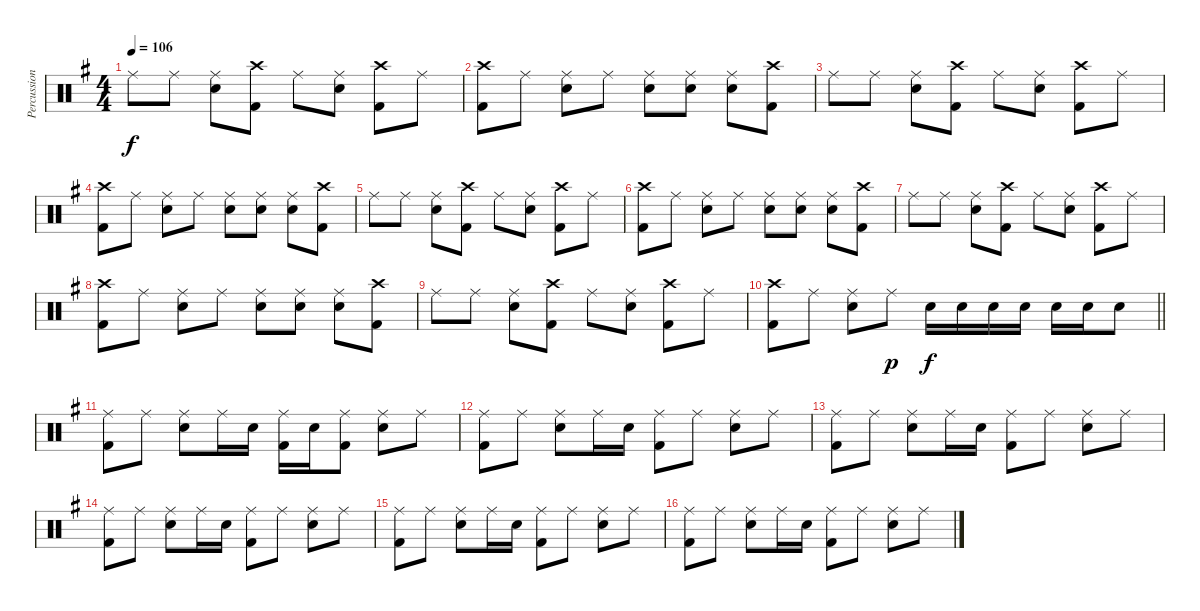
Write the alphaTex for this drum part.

\track ("Percussion" "Percussion") {instrument percussion}
\staff {score}
\articulation defaults
\ts (4 4)
\tempo 106
\clef neutral
\ks g "Ride (middle)".8{dy f} "Ride (middle)".8
("Ride (middle)" "Snare (hit) 2").8 ("Crash high (hit)" "Kick (hit) 2").8 "Ride (middle)".8 ("Ride (middle)" "Snare (hit) 2").8 ("Crash high (hit)" "Kick (hit) 2").8 "Ride (middle)".8 |
("Crash high (hit)" "Kick (hit) 2").8 "Ride (middle)".8 ("Ride (middle)" "Snare (hit) 2").8 "Ride (middle)".8 ("Ride (middle)" "Snare (hit) 2").8 ("Ride (middle)" "Snare (hit) 2").8 ("Ride (middle)" "Snare (hit) 2").8 ("Crash high (hit)" "Kick (hit) 2").8 |
"Ride (middle)".8 "Ride (middle)".8 ("Ride (middle)" "Snare (hit) 2").8 ("Crash high (hit)" "Kick (hit) 2").8 "Ride (middle)".8 ("Ride (middle)" "Snare (hit) 2").8 ("Crash high (hit)" "Kick (hit) 2").8 "Ride (middle)".8 |
("Crash high (hit)" "Kick (hit) 2").8 "Ride (middle)".8 ("Ride (middle)" "Snare (hit) 2").8 "Ride (middle)".8 ("Ride (middle)" "Snare (hit) 2").8 ("Ride (middle)" "Snare (hit) 2").8 ("Ride (middle)" "Snare (hit) 2").8 ("Crash high (hit)" "Kick (hit) 2").8 |
"Ride (middle)".8 "Ride (middle)".8 ("Ride (middle)" "Snare (hit) 2").8 ("Crash high (hit)" "Kick (hit) 2").8 "Ride (middle)".8 ("Ride (middle)" "Snare (hit) 2").8 ("Crash high (hit)" "Kick (hit) 2").8 "Ride (middle)".8 |
("Crash high (hit)" "Kick (hit) 2").8 "Ride (middle)".8 ("Ride (middle)" "Snare (hit) 2").8 "Ride (middle)".8 ("Ride (middle)" "Snare (hit) 2").8 ("Ride (middle)" "Snare (hit) 2").8 ("Ride (middle)" "Snare (hit) 2").8 ("Crash high (hit)" "Kick (hit) 2").8 |
"Ride (middle)".8 "Ride (middle)".8 ("Ride (middle)" "Snare (hit) 2").8 ("Crash high (hit)" "Kick (hit) 2").8 "Ride (middle)".8 ("Ride (middle)" "Snare (hit) 2").8 ("Crash high (hit)" "Kick (hit) 2").8 "Ride (middle)".8 |
("Crash high (hit)" "Kick (hit) 2").8 "Ride (middle)".8 ("Ride (middle)" "Snare (hit) 2").8 "Ride (middle)".8 ("Ride (middle)" "Snare (hit) 2").8 ("Ride (middle)" "Snare (hit) 2").8 ("Ride (middle)" "Snare (hit) 2").8 ("Crash high (hit)" "Kick (hit) 2").8 |
"Ride (middle)".8 "Ride (middle)".8 ("Ride (middle)" "Snare (hit) 2").8 ("Crash high (hit)" "Kick (hit) 2").8 "Ride (middle)".8 ("Ride (middle)" "Snare (hit) 2").8 ("Crash high (hit)" "Kick (hit) 2").8 "Ride (middle)".8 |
\barLineRight lightlight
("Crash high (hit)" "Kick (hit) 2").8 "Ride (middle)".8 ("Ride (middle)" "Snare (hit) 2").8 "Ride (middle)".8{dy p} "Snare (hit) 2".16{dy f} "Snare (hit) 2".16 "Snare (hit) 2".16 "Snare (hit) 2".16 "Snare (hit) 2".16 "Snare (hit) 2".16 "Snare (hit) 2".8 |
("Ride (middle)" "Kick (hit) 2").8 "Ride (middle)".8 ("Ride (middle)" "Snare (hit) 2").8 "Ride (middle)".16 "Snare (hit) 2".16 ("Ride (middle)" "Kick (hit) 2").16 "Snare (hit) 2".16 ("Ride (middle)" "Kick (hit) 2").8 ("Ride (middle)" "Snare (hit) 2").8 "Ride (middle)".8 |
("Ride (middle)" "Kick (hit) 2").8 "Ride (middle)".8 ("Ride (middle)" "Snare (hit) 2").8 "Ride (middle)".16 "Snare (hit) 2".16 ("Ride (middle)" "Kick (hit) 2").8 "Ride (middle)".8 ("Ride (middle)" "Snare (hit) 2").8 "Ride (middle)".8 |
("Ride (middle)" "Kick (hit) 2").8 "Ride (middle)".8 ("Ride (middle)" "Snare (hit) 2").8 "Ride (middle)".16 "Snare (hit) 2".16 ("Ride (middle)" "Kick (hit) 2").8 "Ride (middle)".8 ("Ride (middle)" "Snare (hit) 2").8 "Ride (middle)".8 |
("Ride (middle)" "Kick (hit) 2").8 "Ride (middle)".8 ("Ride (middle)" "Snare (hit) 2").8 "Ride (middle)".16 "Snare (hit) 2".16 ("Ride (middle)" "Kick (hit) 2").8 "Ride (middle)".8 ("Ride (middle)" "Snare (hit) 2").8 "Ride (middle)".8 |
("Ride (middle)" "Kick (hit) 2").8 "Ride (middle)".8 ("Ride (middle)" "Snare (hit) 2").8 "Ride (middle)".16 "Snare (hit) 2".16 ("Ride (middle)" "Kick (hit) 2").8 "Ride (middle)".8 ("Ride (middle)" "Snare (hit) 2").8 "Ride (middle)".8 |
("Ride (middle)" "Kick (hit) 2").8 "Ride (middle)".8 ("Ride (middle)" "Snare (hit) 2").8 "Ride (middle)".16 "Snare (hit) 2".16 ("Ride (middle)" "Kick (hit) 2").8 "Ride (middle)".8 ("Ride (middle)" "Snare (hit) 2").8 "Ride (middle)".8
